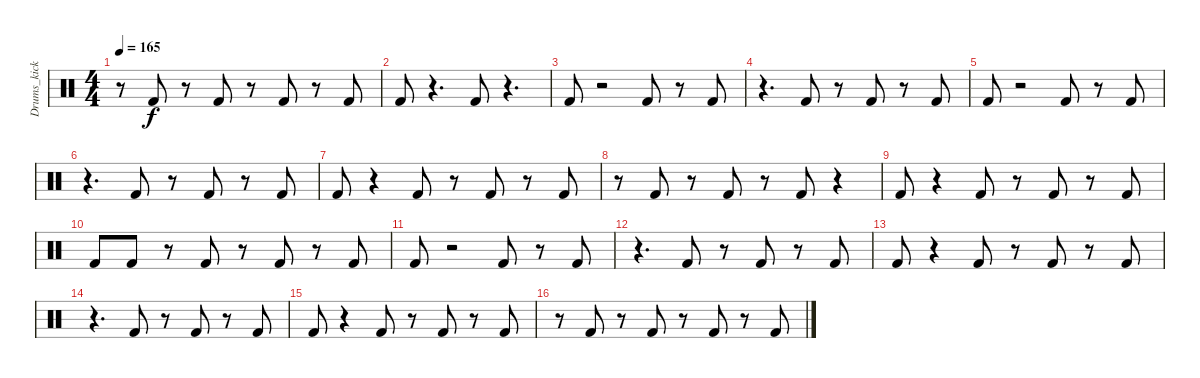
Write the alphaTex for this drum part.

\track ("Drums_kick" "Drums_kick") {instrument percussion}
\staff {score}
\articulation defaults
\ts (4 4)
\tempo 165
\clef neutral
\ks c
r.8{dy f} "Kick (hit) 2".8 r.8 "Kick (hit) 2".8 r.8 "Kick (hit) 2".8 r.8 "Kick (hit) 2".8 |
"Kick (hit) 2".8 r.4{d} "Kick (hit) 2".8 r.4{d} |
"Kick (hit) 2".8 r.2 "Kick (hit) 2".8 r.8 "Kick (hit) 2".8 |
r.4{d} "Kick (hit) 2".8 r.8 "Kick (hit) 2".8 r.8 "Kick (hit) 2".8 |
"Kick (hit) 2".8 r.2 "Kick (hit) 2".8 r.8 "Kick (hit) 2".8 |
r.4{d} "Kick (hit) 2".8 r.8 "Kick (hit) 2".8 r.8 "Kick (hit) 2".8 |
"Kick (hit) 2".8 r.4 "Kick (hit) 2".8 r.8 "Kick (hit) 2".8 r.8 "Kick (hit) 2".8 |
r.8 "Kick (hit) 2".8 r.8 "Kick (hit) 2".8 r.8 "Kick (hit) 2".8 r.4 |
"Kick (hit) 2".8 r.4 "Kick (hit) 2".8 r.8 "Kick (hit) 2".8 r.8 "Kick (hit) 2".8 |
"Kick (hit) 2".8 "Kick (hit) 2".8 r.8 "Kick (hit) 2".8 r.8 "Kick (hit) 2".8 r.8 "Kick (hit) 2".8 |
"Kick (hit) 2".8 r.2 "Kick (hit) 2".8 r.8 "Kick (hit) 2".8 |
r.4{d} "Kick (hit) 2".8 r.8 "Kick (hit) 2".8 r.8 "Kick (hit) 2".8 |
"Kick (hit) 2".8 r.4 "Kick (hit) 2".8 r.8 "Kick (hit) 2".8 r.8 "Kick (hit) 2".8 |
r.4{d} "Kick (hit) 2".8 r.8 "Kick (hit) 2".8 r.8 "Kick (hit) 2".8 |
"Kick (hit) 2".8 r.4 "Kick (hit) 2".8 r.8 "Kick (hit) 2".8 r.8 "Kick (hit) 2".8 |
r.8 "Kick (hit) 2".8 r.8 "Kick (hit) 2".8 r.8 "Kick (hit) 2".8 r.8 "Kick (hit) 2".8
